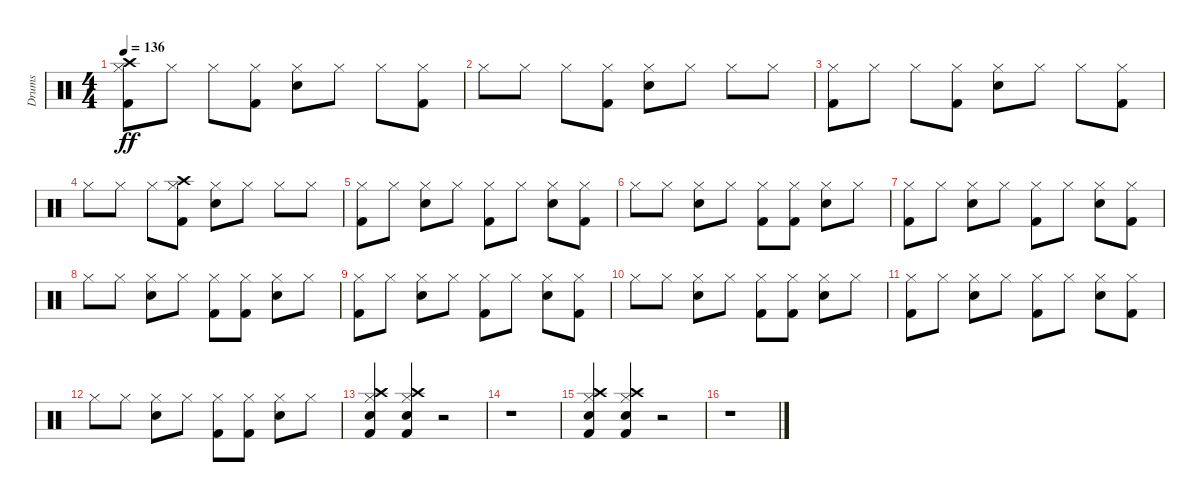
\track ("Drums" "Drums") {instrument percussion}
\staff {score}
\articulation defaults
\ts (4 4)
\tempo 136
\clef neutral
\ks c
("Kick (hit) 2" "Hi-Hat (closed)" "Crash high (hit)").8{dy ff} "Hi-Hat (closed)".8 "Hi-Hat (closed)".8 ("Kick (hit) 2" "Hi-Hat (closed)").8 ("Snare (hit) 2" "Hi-Hat (closed)").8 "Hi-Hat (closed)".8 "Hi-Hat (closed)".8 ("Kick (hit) 2" "Hi-Hat (closed)").8 |
"Hi-Hat (closed)".8 "Hi-Hat (closed)".8 "Hi-Hat (closed)".8 ("Kick (hit) 2" "Hi-Hat (closed)").8 ("Snare (hit) 2" "Hi-Hat (closed)").8 "Hi-Hat (closed)".8 "Hi-Hat (closed)".8 "Hi-Hat (closed)".8 |
("Kick (hit) 2" "Hi-Hat (closed)").8 "Hi-Hat (closed)".8 "Hi-Hat (closed)".8 ("Kick (hit) 2" "Hi-Hat (closed)").8 ("Snare (hit) 2" "Hi-Hat (closed)").8 "Hi-Hat (closed)".8 "Hi-Hat (closed)".8 ("Kick (hit) 2" "Hi-Hat (closed)").8 |
"Hi-Hat (closed)".8 "Hi-Hat (closed)".8 "Hi-Hat (closed)".8 ("Kick (hit) 2" "Hi-Hat (closed)" "Crash high (hit)").8 ("Snare (hit) 2" "Hi-Hat (closed)").8 "Hi-Hat (closed)".8 "Hi-Hat (closed)".8 "Hi-Hat (closed)".8 |
("Kick (hit) 2" "Hi-Hat (closed)").8 "Hi-Hat (closed)".8 ("Snare (hit) 2" "Hi-Hat (closed)").8 "Hi-Hat (closed)".8 ("Kick (hit) 2" "Hi-Hat (closed)").8 "Hi-Hat (closed)".8 ("Snare (hit) 2" "Hi-Hat (closed)").8 ("Kick (hit) 2" "Hi-Hat (closed)").8 |
"Hi-Hat (closed)".8 "Hi-Hat (closed)".8 ("Snare (hit) 2" "Hi-Hat (closed)").8 "Hi-Hat (closed)".8 ("Kick (hit) 2" "Hi-Hat (closed)").8 ("Kick (hit) 2" "Hi-Hat (closed)").8 ("Snare (hit) 2" "Hi-Hat (closed)").8 "Hi-Hat (closed)".8 |
("Kick (hit) 2" "Hi-Hat (closed)").8 "Hi-Hat (closed)".8 ("Snare (hit) 2" "Hi-Hat (closed)").8 "Hi-Hat (closed)".8 ("Kick (hit) 2" "Hi-Hat (closed)").8 "Hi-Hat (closed)".8 ("Snare (hit) 2" "Hi-Hat (closed)").8 ("Kick (hit) 2" "Hi-Hat (closed)").8 |
"Hi-Hat (closed)".8 "Hi-Hat (closed)".8 ("Snare (hit) 2" "Hi-Hat (closed)").8 "Hi-Hat (closed)".8 ("Kick (hit) 2" "Hi-Hat (closed)").8 ("Kick (hit) 2" "Hi-Hat (closed)").8 ("Snare (hit) 2" "Hi-Hat (closed)").8 "Hi-Hat (closed)".8 |
("Kick (hit) 2" "Hi-Hat (closed)").8 "Hi-Hat (closed)".8 ("Snare (hit) 2" "Hi-Hat (closed)").8 "Hi-Hat (closed)".8 ("Kick (hit) 2" "Hi-Hat (closed)").8 "Hi-Hat (closed)".8 ("Snare (hit) 2" "Hi-Hat (closed)").8 ("Kick (hit) 2" "Hi-Hat (closed)").8 |
"Hi-Hat (closed)".8 "Hi-Hat (closed)".8 ("Snare (hit) 2" "Hi-Hat (closed)").8 "Hi-Hat (closed)".8 ("Kick (hit) 2" "Hi-Hat (closed)").8 ("Kick (hit) 2" "Hi-Hat (closed)").8 ("Snare (hit) 2" "Hi-Hat (closed)").8 "Hi-Hat (closed)".8 |
("Kick (hit) 2" "Hi-Hat (closed)").8 "Hi-Hat (closed)".8 ("Snare (hit) 2" "Hi-Hat (closed)").8 "Hi-Hat (closed)".8 ("Kick (hit) 2" "Hi-Hat (closed)").8 "Hi-Hat (closed)".8 ("Snare (hit) 2" "Hi-Hat (closed)").8 ("Kick (hit) 2" "Hi-Hat (closed)").8 |
"Hi-Hat (closed)".8 "Hi-Hat (closed)".8 ("Snare (hit) 2" "Hi-Hat (closed)").8 "Hi-Hat (closed)".8 ("Kick (hit) 2" "Hi-Hat (closed)").8 ("Kick (hit) 2" "Hi-Hat (closed)").8 ("Snare (hit) 2" "Hi-Hat (closed)").8 "Hi-Hat (closed)".8 |
("Kick (hit) 2" "Snare (hit) 2" "Hi-Hat (closed)" "Crash high (hit)").4 ("Kick (hit) 2" "Snare (hit) 2" "Hi-Hat (closed)" "Crash high (hit)").4 r.2 |
r.1 |
("Kick (hit) 2" "Snare (hit) 2" "Hi-Hat (closed)" "Crash high (hit)").4 ("Kick (hit) 2" "Snare (hit) 2" "Hi-Hat (closed)" "Crash high (hit)").4 r.2 |
r.1
